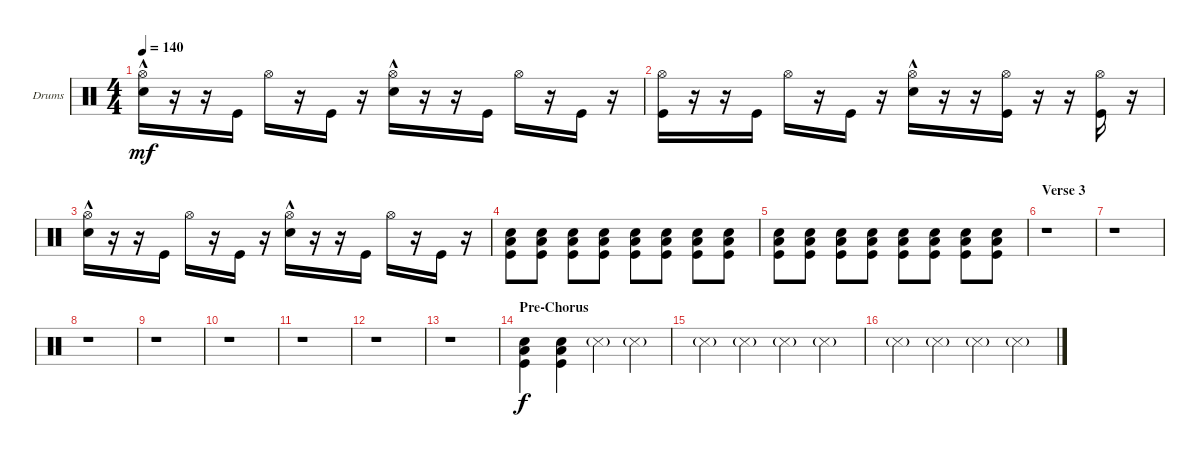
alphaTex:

\defaultSystemsLayout 4
\bracketExtendMode groupsimilarinstruments
\firstSystemTrackNameOrientation horizontal
\otherSystemsTrackNameOrientation horizontal
\track ("Drumkit - Paul" "Drums") {instrument percussion}
\staff {score}
\articulation defaults
\ts (4 4)
\tempo 140
\clef neutral
\ks c
("Hi-Hat (open)" "Snare (hit) 2"{hac}).16{dy mf} r.16 r.16 "Kick (hit)".16 "Hi-Hat (open)".16 r.16 "Kick (hit)".16 r.16 ("Snare (hit) 2"{hac} "Hi-Hat (open)").16 r.16 r.16 "Kick (hit)".16 "Hi-Hat (open)".16 r.16 "Kick (hit)".16 r.16 |
("Kick (hit)" "Hi-Hat (open)").16 r.16 r.16 "Kick (hit)".16 "Hi-Hat (open)".16 r.16 "Kick (hit)".16 r.16 ("Snare (hit) 2"{hac} "Hi-Hat (open)").16 r.16 r.16 ("Kick (hit)" "Hi-Hat (open)").16 r.16 r.16 ("Kick (hit)" "Hi-Hat (open)").16 r.16 |
("Hi-Hat (open)" "Snare (hit) 2"{hac}).16 r.16 r.16 "Kick (hit)".16 "Hi-Hat (open)".16 r.16 "Kick (hit)".16 r.16 ("Snare (hit) 2"{hac} "Hi-Hat (open)").16 r.16 r.16 "Kick (hit)".16 "Hi-Hat (open)".16 r.16 "Kick (hit)".16 r.16 |
("Kick (hit)" "Low Tom (hit)" "Snare (hit) 2").8 ("Kick (hit)" "Low Tom (hit)" "Snare (hit) 2").8 ("Kick (hit)" "Low Tom (hit)" "Snare (hit) 2").8 ("Kick (hit)" "Low Tom (hit)" "Snare (hit) 2").8 ("Kick (hit)" "Low Tom (hit)" "Snare (hit) 2").8 ("Kick (hit)" "Low Tom (hit)" "Snare (hit) 2").8 ("Kick (hit)" "Low Tom (hit)" "Snare (hit) 2").8 ("Kick (hit)" "Low Tom (hit)" "Snare (hit) 2").8 |
("Kick (hit)" "Low Tom (hit)" "Snare (hit) 2").8 ("Kick (hit)" "Low Tom (hit)" "Snare (hit) 2").8 ("Kick (hit)" "Low Tom (hit)" "Snare (hit) 2").8 ("Kick (hit)" "Low Tom (hit)" "Snare (hit) 2").8 ("Kick (hit)" "Low Tom (hit)" "Snare (hit) 2").8 ("Kick (hit)" "Low Tom (hit)" "Snare (hit) 2").8 ("Kick (hit)" "Low Tom (hit)" "Snare (hit) 2").8 ("Kick (hit)" "Low Tom (hit)" "Snare (hit) 2").8 |
\section ("" "Verse 3")
r.1 |
r.1 |
r.1 |
r.1 |
r.1 |
r.1 |
r.1 |
r.1 |
\section ("" "Pre-Chorus")
("Kick (hit)" "Snare (hit) 2" "Low Tom (hit)").4{dy f} ("Snare (hit) 2" "Low Tom (hit)" "Kick (hit)").4 "Snare (side stick) 3"{g}.4 "Snare (side stick) 3"{g}.4 |
"Snare (side stick) 3"{g}.4 "Snare (side stick) 3"{g}.4 "Snare (side stick) 3"{g}.4 "Snare (side stick) 3"{g}.4 |
"Snare (side stick) 3"{g}.4 "Snare (side stick) 3"{g}.4 "Snare (side stick) 3"{g}.4 "Snare (side stick) 3"{g}.4
